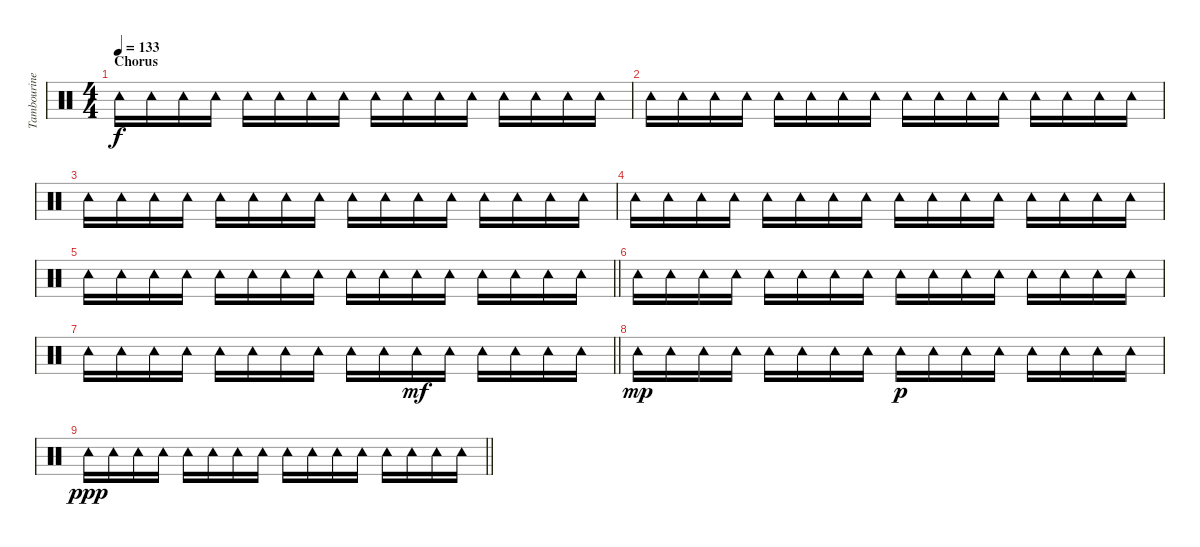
\track ("Tambourine" "Tambourine") {instrument percussion}
\staff {score}
\articulation defaults
\ts (4 4)
\section ("" "Chorus")
\tempo 133
\clef neutral
\ks c "Tambourine (hit)".16{dy f} "Tambourine (hit)".16 "Tambourine (hit)".16 "Tambourine (hit)".16 "Tambourine (hit)".16 "Tambourine (hit)".16 "Tambourine (hit)".16 "Tambourine (hit)".16 "Tambourine (hit)".16 "Tambourine (hit)".16 "Tambourine (hit)".16 "Tambourine (hit)".16 "Tambourine (hit)".16 "Tambourine (hit)".16 "Tambourine (hit)".16 "Tambourine (hit)".16
|
"Tambourine (hit)".16 "Tambourine (hit)".16 "Tambourine (hit)".16 "Tambourine (hit)".16 "Tambourine (hit)".16 "Tambourine (hit)".16 "Tambourine (hit)".16 "Tambourine (hit)".16 "Tambourine (hit)".16 "Tambourine (hit)".16 "Tambourine (hit)".16 "Tambourine (hit)".16 "Tambourine (hit)".16 "Tambourine (hit)".16 "Tambourine (hit)".16 "Tambourine (hit)".16 |
"Tambourine (hit)".16 "Tambourine (hit)".16 "Tambourine (hit)".16 "Tambourine (hit)".16 "Tambourine (hit)".16 "Tambourine (hit)".16 "Tambourine (hit)".16 "Tambourine (hit)".16 "Tambourine (hit)".16 "Tambourine (hit)".16 "Tambourine (hit)".16 "Tambourine (hit)".16 "Tambourine (hit)".16 "Tambourine (hit)".16 "Tambourine (hit)".16 "Tambourine (hit)".16 |
"Tambourine (hit)".16 "Tambourine (hit)".16 "Tambourine (hit)".16 "Tambourine (hit)".16 "Tambourine (hit)".16 "Tambourine (hit)".16 "Tambourine (hit)".16 "Tambourine (hit)".16 "Tambourine (hit)".16 "Tambourine (hit)".16 "Tambourine (hit)".16 "Tambourine (hit)".16 "Tambourine (hit)".16 "Tambourine (hit)".16 "Tambourine (hit)".16 "Tambourine (hit)".16 |
\barLineRight lightlight "Tambourine (hit)".16 "Tambourine (hit)".16 "Tambourine (hit)".16 "Tambourine (hit)".16 "Tambourine (hit)".16 "Tambourine (hit)".16 "Tambourine (hit)".16 "Tambourine (hit)".16 "Tambourine (hit)".16 "Tambourine (hit)".16 "Tambourine (hit)".16 "Tambourine (hit)".16 "Tambourine (hit)".16 "Tambourine (hit)".16 "Tambourine (hit)".16 "Tambourine (hit)".16
|
"Tambourine (hit)".16 "Tambourine (hit)".16 "Tambourine (hit)".16 "Tambourine (hit)".16 "Tambourine (hit)".16 "Tambourine (hit)".16 "Tambourine (hit)".16 "Tambourine (hit)".16 "Tambourine (hit)".16 "Tambourine (hit)".16 "Tambourine (hit)".16 "Tambourine (hit)".16 "Tambourine (hit)".16 "Tambourine (hit)".16 "Tambourine (hit)".16 "Tambourine (hit)".16 |
\barLineRight lightlight "Tambourine (hit)".16 "Tambourine (hit)".16 "Tambourine (hit)".16 "Tambourine (hit)".16 "Tambourine (hit)".16 "Tambourine (hit)".16 "Tambourine (hit)".16 "Tambourine (hit)".16 "Tambourine (hit)".16 "Tambourine (hit)".16 "Tambourine (hit)".16{dy mf} "Tambourine (hit)".16 "Tambourine (hit)".16 "Tambourine (hit)".16 "Tambourine (hit)".16 "Tambourine (hit)".16
|
"Tambourine (hit)".16{dy mp} "Tambourine (hit)".16 "Tambourine (hit)".16 "Tambourine (hit)".16 "Tambourine (hit)".16 "Tambourine (hit)".16 "Tambourine (hit)".16 "Tambourine (hit)".16 "Tambourine (hit)".16{dy p} "Tambourine (hit)".16 "Tambourine (hit)".16 "Tambourine (hit)".16 "Tambourine (hit)".16 "Tambourine (hit)".16 "Tambourine (hit)".16 "Tambourine (hit)".16 |
\barLineRight lightlight "Tambourine (hit)".16{dy ppp} "Tambourine (hit)".16 "Tambourine (hit)".16 "Tambourine (hit)".16 "Tambourine (hit)".16 "Tambourine (hit)".16 "Tambourine (hit)".16 "Tambourine (hit)".16 "Tambourine (hit)".16 "Tambourine (hit)".16 "Tambourine (hit)".16 "Tambourine (hit)".16 "Tambourine (hit)".16 "Tambourine (hit)".16 "Tambourine (hit)".16 "Tambourine (hit)".16
